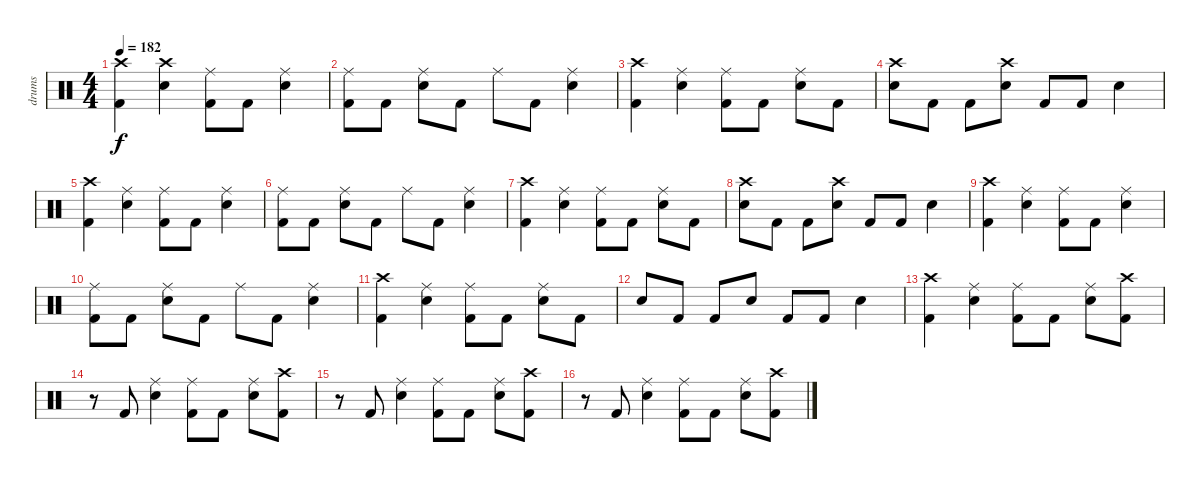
\track ("drums" "drums") {instrument percussion}
\staff {score}
\articulation defaults
\ts (4 4)
\tempo 182
\clef neutral
\ks c
("Crash high (hit)" "Kick (hit) 2").4{dy f} ("Crash high (hit)" "Electric Snare (hit)").4 ("Ride (middle)" "Kick (hit) 2").8 "Kick (hit) 2".8 ("Ride (middle)" "Electric Snare (hit)").4 |
("Ride (middle)" "Kick (hit) 2").8 "Kick (hit) 2".8 ("Ride (middle)" "Electric Snare (hit)").8 "Kick (hit) 2".8 "Ride (middle)".8 "Kick (hit) 2".8 ("Ride (middle)" "Electric Snare (hit)").4 |
("Crash high (hit)" "Kick (hit) 2").4 ("Ride (middle)" "Electric Snare (hit)").4 ("Ride (middle)" "Kick (hit) 2").8 "Kick (hit) 2".8 ("Ride (middle)" "Electric Snare (hit)").8 "Kick (hit) 2".8 |
("Crash high (hit)" "Electric Snare (hit)").8 "Kick (hit) 2".8 "Kick (hit) 2".8 ("Crash high (hit)" "Electric Snare (hit)").8 "Kick (hit) 2".8 "Kick (hit) 2".8 "Electric Snare (hit)".4 |
("Crash high (hit)" "Kick (hit) 2").4 ("Ride (middle)" "Electric Snare (hit)").4 ("Ride (middle)" "Kick (hit) 2").8 "Kick (hit) 2".8 ("Ride (middle)" "Electric Snare (hit)").4 |
("Ride (middle)" "Kick (hit) 2").8 "Kick (hit) 2".8 ("Ride (middle)" "Electric Snare (hit)").8 "Kick (hit) 2".8 "Ride (middle)".8 "Kick (hit) 2".8 ("Ride (middle)" "Electric Snare (hit)").4 |
("Crash high (hit)" "Kick (hit) 2").4 ("Ride (middle)" "Electric Snare (hit)").4 ("Ride (middle)" "Kick (hit) 2").8 "Kick (hit) 2".8 ("Ride (middle)" "Electric Snare (hit)").8 "Kick (hit) 2".8 |
("Crash high (hit)" "Electric Snare (hit)").8 "Kick (hit) 2".8 "Kick (hit) 2".8 ("Crash high (hit)" "Electric Snare (hit)").8 "Kick (hit) 2".8 "Kick (hit) 2".8 "Electric Snare (hit)".4 |
("Crash high (hit)" "Kick (hit) 2").4 ("Ride (middle)" "Electric Snare (hit)").4 ("Ride (middle)" "Kick (hit) 2").8 "Kick (hit) 2".8 ("Ride (middle)" "Electric Snare (hit)").4 |
("Ride (middle)" "Kick (hit) 2").8 "Kick (hit) 2".8 ("Ride (middle)" "Electric Snare (hit)").8 "Kick (hit) 2".8 "Ride (middle)".8 "Kick (hit) 2".8 ("Ride (middle)" "Electric Snare (hit)").4 |
("Crash high (hit)" "Kick (hit) 2").4 ("Ride (middle)" "Electric Snare (hit)").4 ("Ride (middle)" "Kick (hit) 2").8 "Kick (hit) 2".8 ("Ride (middle)" "Electric Snare (hit)").8 "Kick (hit) 2".8 |
"Electric Snare (hit)".8 "Kick (hit) 2".8 "Kick (hit) 2".8 "Electric Snare (hit)".8 "Kick (hit) 2".8 "Kick (hit) 2".8 "Electric Snare (hit)".4 |
("Crash high (hit)" "Kick (hit) 2").4 ("Ride (middle)" "Electric Snare (hit)").4 ("Ride (middle)" "Kick (hit) 2").8 "Kick (hit) 2".8 ("Ride (middle)" "Electric Snare (hit)").8 ("Crash high (hit)" "Kick (hit) 2").8 |
r.8 "Kick (hit) 2".8 ("Ride (middle)" "Electric Snare (hit)").4 ("Ride (middle)" "Kick (hit) 2").8 "Kick (hit) 2".8 ("Ride (middle)" "Electric Snare (hit)").8 ("Crash high (hit)" "Kick (hit) 2").8 |
r.8 "Kick (hit) 2".8 ("Ride (middle)" "Electric Snare (hit)").4 ("Ride (middle)" "Kick (hit) 2").8 "Kick (hit) 2".8 ("Ride (middle)" "Electric Snare (hit)").8 ("Crash high (hit)" "Kick (hit) 2").8 |
r.8 "Kick (hit) 2".8 ("Ride (middle)" "Electric Snare (hit)").4 ("Ride (middle)" "Kick (hit) 2").8 "Kick (hit) 2".8 ("Ride (middle)" "Electric Snare (hit)").8 ("Crash high (hit)" "Kick (hit) 2").8
